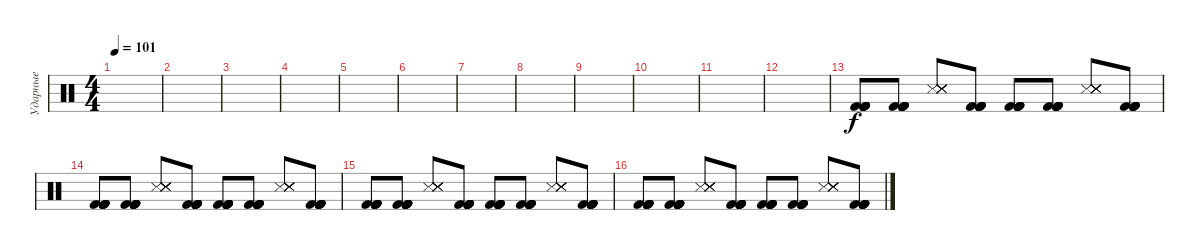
\track ("Ударные" "Ударные") {instrument percussion}
\staff {score}
\articulation defaults
\ts (4 4)
\tempo 101
\clef neutral
\ks c
|
|
|
|
|
|
|
|
|
|
|
|
("Kick (hit) 2" "Kick (hit) 2" "Kick (hit) 2" "Kick (hit) 2" "Kick (hit) 2" "Kick (hit) 2").8 ("Kick (hit) 2" "Kick (hit) 2" "Kick (hit) 2" "Kick (hit) 2" "Kick (hit) 2" "Kick (hit) 2").8 ("Snare (side stick) 3" "Snare (side stick) 3" "Snare (side stick) 3" "Snare (side stick) 3" "Snare (side stick) 3" "Snare (side stick) 3").8 ("Kick (hit) 2" "Kick (hit) 2" "Kick (hit) 2" "Kick (hit) 2" "Kick (hit) 2" "Kick (hit) 2").8 ("Kick (hit) 2" "Kick (hit) 2" "Kick (hit) 2" "Kick (hit) 2" "Kick (hit) 2" "Kick (hit) 2").8 ("Kick (hit) 2" "Kick (hit) 2" "Kick (hit) 2" "Kick (hit) 2" "Kick (hit) 2" "Kick (hit) 2").8 ("Snare (side stick) 3" "Snare (side stick) 3" "Snare (side stick) 3" "Snare (side stick) 3" "Snare (side stick) 3" "Snare (side stick) 3").8 ("Kick (hit) 2" "Kick (hit) 2" "Kick (hit) 2" "Kick (hit) 2" "Kick (hit) 2" "Kick (hit) 2").8 |
("Kick (hit) 2" "Kick (hit) 2" "Kick (hit) 2" "Kick (hit) 2" "Kick (hit) 2" "Kick (hit) 2").8 ("Kick (hit) 2" "Kick (hit) 2" "Kick (hit) 2" "Kick (hit) 2" "Kick (hit) 2" "Kick (hit) 2").8 ("Snare (side stick) 3" "Snare (side stick) 3" "Snare (side stick) 3" "Snare (side stick) 3" "Snare (side stick) 3" "Snare (side stick) 3").8 ("Kick (hit) 2" "Kick (hit) 2" "Kick (hit) 2" "Kick (hit) 2" "Kick (hit) 2" "Kick (hit) 2").8 ("Kick (hit) 2" "Kick (hit) 2" "Kick (hit) 2" "Kick (hit) 2" "Kick (hit) 2" "Kick (hit) 2").8 ("Kick (hit) 2" "Kick (hit) 2" "Kick (hit) 2" "Kick (hit) 2" "Kick (hit) 2" "Kick (hit) 2").8 ("Snare (side stick) 3" "Snare (side stick) 3" "Snare (side stick) 3" "Snare (side stick) 3" "Snare (side stick) 3" "Snare (side stick) 3").8 ("Kick (hit) 2" "Kick (hit) 2" "Kick (hit) 2" "Kick (hit) 2" "Kick (hit) 2" "Kick (hit) 2").8 |
("Kick (hit) 2" "Kick (hit) 2" "Kick (hit) 2" "Kick (hit) 2" "Kick (hit) 2" "Kick (hit) 2").8 ("Kick (hit) 2" "Kick (hit) 2" "Kick (hit) 2" "Kick (hit) 2" "Kick (hit) 2" "Kick (hit) 2").8 ("Snare (side stick) 3" "Snare (side stick) 3" "Snare (side stick) 3" "Snare (side stick) 3" "Snare (side stick) 3" "Snare (side stick) 3").8 ("Kick (hit) 2" "Kick (hit) 2" "Kick (hit) 2" "Kick (hit) 2" "Kick (hit) 2" "Kick (hit) 2").8 ("Kick (hit) 2" "Kick (hit) 2" "Kick (hit) 2" "Kick (hit) 2" "Kick (hit) 2" "Kick (hit) 2").8 ("Kick (hit) 2" "Kick (hit) 2" "Kick (hit) 2" "Kick (hit) 2" "Kick (hit) 2" "Kick (hit) 2").8 ("Snare (side stick) 3" "Snare (side stick) 3" "Snare (side stick) 3" "Snare (side stick) 3" "Snare (side stick) 3" "Snare (side stick) 3").8 ("Kick (hit) 2" "Kick (hit) 2" "Kick (hit) 2" "Kick (hit) 2" "Kick (hit) 2" "Kick (hit) 2").8 |
("Kick (hit) 2" "Kick (hit) 2" "Kick (hit) 2" "Kick (hit) 2" "Kick (hit) 2" "Kick (hit) 2").8 ("Kick (hit) 2" "Kick (hit) 2" "Kick (hit) 2" "Kick (hit) 2" "Kick (hit) 2" "Kick (hit) 2").8 ("Snare (side stick) 3" "Snare (side stick) 3" "Snare (side stick) 3" "Snare (side stick) 3" "Snare (side stick) 3" "Snare (side stick) 3").8 ("Kick (hit) 2" "Kick (hit) 2" "Kick (hit) 2" "Kick (hit) 2" "Kick (hit) 2" "Kick (hit) 2").8 ("Kick (hit) 2" "Kick (hit) 2" "Kick (hit) 2" "Kick (hit) 2" "Kick (hit) 2" "Kick (hit) 2").8 ("Kick (hit) 2" "Kick (hit) 2" "Kick (hit) 2" "Kick (hit) 2" "Kick (hit) 2" "Kick (hit) 2").8 ("Snare (side stick) 3" "Snare (side stick) 3" "Snare (side stick) 3" "Snare (side stick) 3" "Snare (side stick) 3" "Snare (side stick) 3").8 ("Kick (hit) 2" "Kick (hit) 2" "Kick (hit) 2" "Kick (hit) 2" "Kick (hit) 2" "Kick (hit) 2").8
